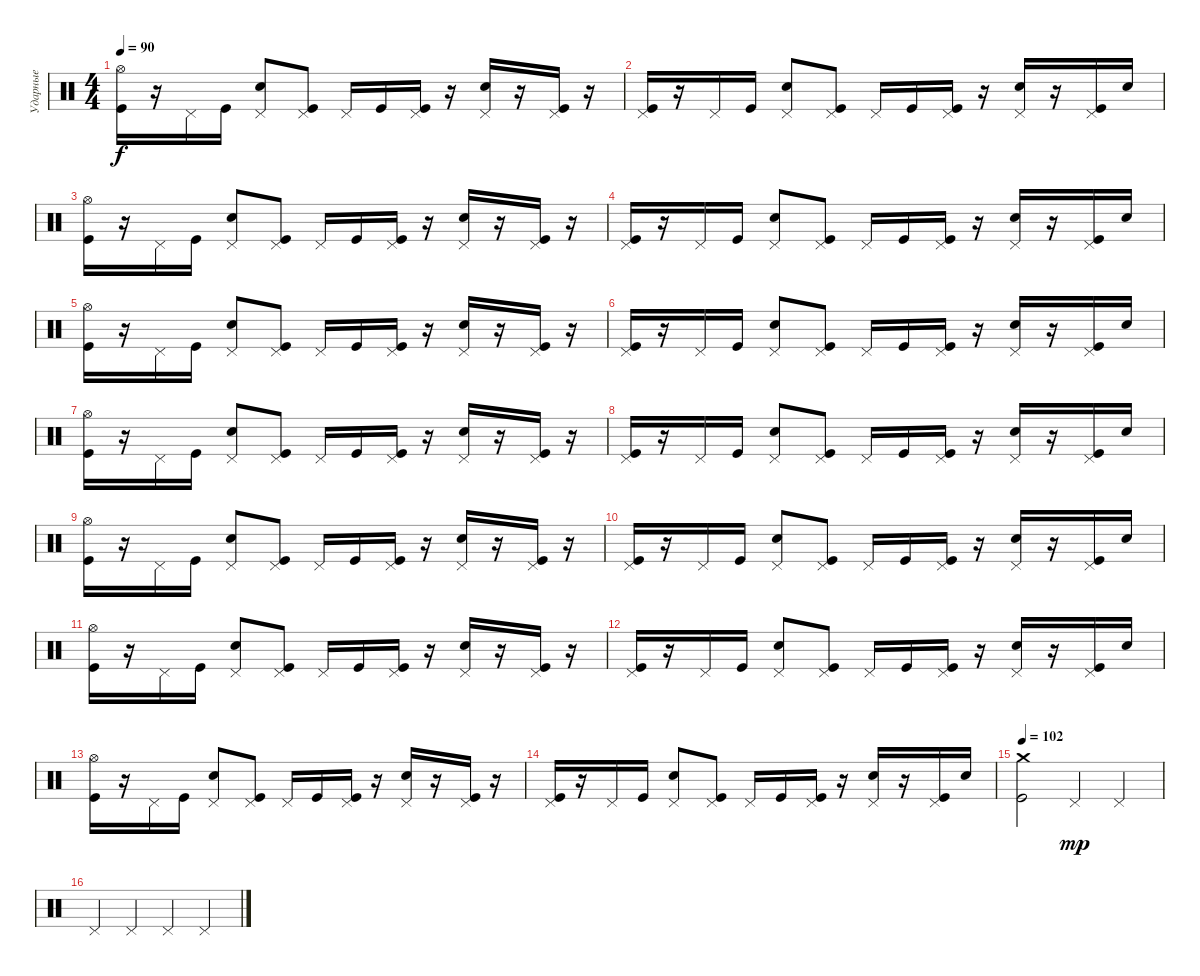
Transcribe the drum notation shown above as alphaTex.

\track ("Ударные" "Ударные") {instrument percussion}
\staff {score}
\articulation defaults
\ts (4 4)
\tempo 90
\clef neutral
\ks c
("Hi-Hat (open)" "Kick (hit)").16{dy f} r.16 "Pedal Hi-Hat (hit)".16 "Kick (hit)".16 ("Pedal Hi-Hat (hit)" "Electric Snare (hit)").8 ("Pedal Hi-Hat (hit)" "Kick (hit)").8 "Pedal Hi-Hat (hit)".16 "Kick (hit)".16 ("Pedal Hi-Hat (hit)" "Kick (hit)").16 r.16 ("Pedal Hi-Hat (hit)" "Electric Snare (hit)").16 r.16 ("Pedal Hi-Hat (hit)" "Kick (hit)").16 r.16 |
("Pedal Hi-Hat (hit)" "Kick (hit)").16 r.16 "Pedal Hi-Hat (hit)".16 "Kick (hit)".16 ("Pedal Hi-Hat (hit)" "Electric Snare (hit)").8 ("Pedal Hi-Hat (hit)" "Kick (hit)").8 "Pedal Hi-Hat (hit)".16 "Kick (hit)".16 ("Pedal Hi-Hat (hit)" "Kick (hit)").16 r.16 ("Pedal Hi-Hat (hit)" "Electric Snare (hit)").16 r.16 ("Pedal Hi-Hat (hit)" "Kick (hit)").16 "Electric Snare (hit)".16 |
("Hi-Hat (open)" "Kick (hit)").16 r.16 "Pedal Hi-Hat (hit)".16 "Kick (hit)".16 ("Pedal Hi-Hat (hit)" "Electric Snare (hit)").8 ("Pedal Hi-Hat (hit)" "Kick (hit)").8 "Pedal Hi-Hat (hit)".16 "Kick (hit)".16 ("Pedal Hi-Hat (hit)" "Kick (hit)").16 r.16 ("Pedal Hi-Hat (hit)" "Electric Snare (hit)").16 r.16 ("Pedal Hi-Hat (hit)" "Kick (hit)").16 r.16 |
("Pedal Hi-Hat (hit)" "Kick (hit)").16 r.16 "Pedal Hi-Hat (hit)".16 "Kick (hit)".16 ("Pedal Hi-Hat (hit)" "Electric Snare (hit)").8 ("Pedal Hi-Hat (hit)" "Kick (hit)").8 "Pedal Hi-Hat (hit)".16 "Kick (hit)".16 ("Pedal Hi-Hat (hit)" "Kick (hit)").16 r.16 ("Pedal Hi-Hat (hit)" "Electric Snare (hit)").16 r.16 ("Pedal Hi-Hat (hit)" "Kick (hit)").16 "Electric Snare (hit)".16 |
("Hi-Hat (open)" "Kick (hit)").16 r.16 "Pedal Hi-Hat (hit)".16 "Kick (hit)".16 ("Pedal Hi-Hat (hit)" "Electric Snare (hit)").8 ("Pedal Hi-Hat (hit)" "Kick (hit)").8 "Pedal Hi-Hat (hit)".16 "Kick (hit)".16 ("Pedal Hi-Hat (hit)" "Kick (hit)").16 r.16 ("Pedal Hi-Hat (hit)" "Electric Snare (hit)").16 r.16 ("Pedal Hi-Hat (hit)" "Kick (hit)").16 r.16 |
("Pedal Hi-Hat (hit)" "Kick (hit)").16 r.16 "Pedal Hi-Hat (hit)".16 "Kick (hit)".16 ("Pedal Hi-Hat (hit)" "Electric Snare (hit)").8 ("Pedal Hi-Hat (hit)" "Kick (hit)").8 "Pedal Hi-Hat (hit)".16 "Kick (hit)".16 ("Pedal Hi-Hat (hit)" "Kick (hit)").16 r.16 ("Pedal Hi-Hat (hit)" "Electric Snare (hit)").16 r.16 ("Pedal Hi-Hat (hit)" "Kick (hit)").16 "Electric Snare (hit)".16 |
("Hi-Hat (open)" "Kick (hit)").16 r.16 "Pedal Hi-Hat (hit)".16 "Kick (hit)".16 ("Pedal Hi-Hat (hit)" "Electric Snare (hit)").8 ("Pedal Hi-Hat (hit)" "Kick (hit)").8 "Pedal Hi-Hat (hit)".16 "Kick (hit)".16 ("Pedal Hi-Hat (hit)" "Kick (hit)").16 r.16 ("Pedal Hi-Hat (hit)" "Electric Snare (hit)").16 r.16 ("Pedal Hi-Hat (hit)" "Kick (hit)").16 r.16 |
("Pedal Hi-Hat (hit)" "Kick (hit)").16 r.16 "Pedal Hi-Hat (hit)".16 "Kick (hit)".16 ("Pedal Hi-Hat (hit)" "Electric Snare (hit)").8 ("Pedal Hi-Hat (hit)" "Kick (hit)").8 "Pedal Hi-Hat (hit)".16 "Kick (hit)".16 ("Pedal Hi-Hat (hit)" "Kick (hit)").16 r.16 ("Pedal Hi-Hat (hit)" "Electric Snare (hit)").16 r.16 ("Pedal Hi-Hat (hit)" "Kick (hit)").16 "Electric Snare (hit)".16 |
("Hi-Hat (open)" "Kick (hit)").16 r.16 "Pedal Hi-Hat (hit)".16 "Kick (hit)".16 ("Pedal Hi-Hat (hit)" "Electric Snare (hit)").8 ("Pedal Hi-Hat (hit)" "Kick (hit)").8 "Pedal Hi-Hat (hit)".16 "Kick (hit)".16 ("Pedal Hi-Hat (hit)" "Kick (hit)").16 r.16 ("Pedal Hi-Hat (hit)" "Electric Snare (hit)").16 r.16 ("Pedal Hi-Hat (hit)" "Kick (hit)").16 r.16 |
("Pedal Hi-Hat (hit)" "Kick (hit)").16 r.16 "Pedal Hi-Hat (hit)".16 "Kick (hit)".16 ("Pedal Hi-Hat (hit)" "Electric Snare (hit)").8 ("Pedal Hi-Hat (hit)" "Kick (hit)").8 "Pedal Hi-Hat (hit)".16 "Kick (hit)".16 ("Pedal Hi-Hat (hit)" "Kick (hit)").16 r.16 ("Pedal Hi-Hat (hit)" "Electric Snare (hit)").16 r.16 ("Pedal Hi-Hat (hit)" "Kick (hit)").16 "Electric Snare (hit)".16 |
("Hi-Hat (open)" "Kick (hit)").16 r.16 "Pedal Hi-Hat (hit)".16 "Kick (hit)".16 ("Pedal Hi-Hat (hit)" "Electric Snare (hit)").8 ("Pedal Hi-Hat (hit)" "Kick (hit)").8 "Pedal Hi-Hat (hit)".16 "Kick (hit)".16 ("Pedal Hi-Hat (hit)" "Kick (hit)").16 r.16 ("Pedal Hi-Hat (hit)" "Electric Snare (hit)").16 r.16 ("Pedal Hi-Hat (hit)" "Kick (hit)").16 r.16 |
("Pedal Hi-Hat (hit)" "Kick (hit)").16 r.16 "Pedal Hi-Hat (hit)".16 "Kick (hit)".16 ("Pedal Hi-Hat (hit)" "Electric Snare (hit)").8 ("Pedal Hi-Hat (hit)" "Kick (hit)").8 "Pedal Hi-Hat (hit)".16 "Kick (hit)".16 ("Pedal Hi-Hat (hit)" "Kick (hit)").16 r.16 ("Pedal Hi-Hat (hit)" "Electric Snare (hit)").16 r.16 ("Pedal Hi-Hat (hit)" "Kick (hit)").16 "Electric Snare (hit)".16 |
("Hi-Hat (open)" "Kick (hit)").16 r.16 "Pedal Hi-Hat (hit)".16 "Kick (hit)".16 ("Pedal Hi-Hat (hit)" "Electric Snare (hit)").8 ("Pedal Hi-Hat (hit)" "Kick (hit)").8 "Pedal Hi-Hat (hit)".16 "Kick (hit)".16 ("Pedal Hi-Hat (hit)" "Kick (hit)").16 r.16 ("Pedal Hi-Hat (hit)" "Electric Snare (hit)").16 r.16 ("Pedal Hi-Hat (hit)" "Kick (hit)").16 r.16 |
("Pedal Hi-Hat (hit)" "Kick (hit)").16 r.16 "Pedal Hi-Hat (hit)".16 "Kick (hit)".16 ("Pedal Hi-Hat (hit)" "Electric Snare (hit)").8 ("Pedal Hi-Hat (hit)" "Kick (hit)").8 "Pedal Hi-Hat (hit)".16 "Kick (hit)".16 ("Pedal Hi-Hat (hit)" "Kick (hit)").16 r.16 ("Pedal Hi-Hat (hit)" "Electric Snare (hit)").16 r.16 ("Pedal Hi-Hat (hit)" "Kick (hit)").16 "Electric Snare (hit)".16 |
\tempo 102
("Crash medium (hit)" "Kick (hit)").2 "Pedal Hi-Hat (hit)".4{dy mp} "Pedal Hi-Hat (hit)".4 |
"Pedal Hi-Hat (hit)".4 "Pedal Hi-Hat (hit)".4 "Pedal Hi-Hat (hit)".4 "Pedal Hi-Hat (hit)".4
